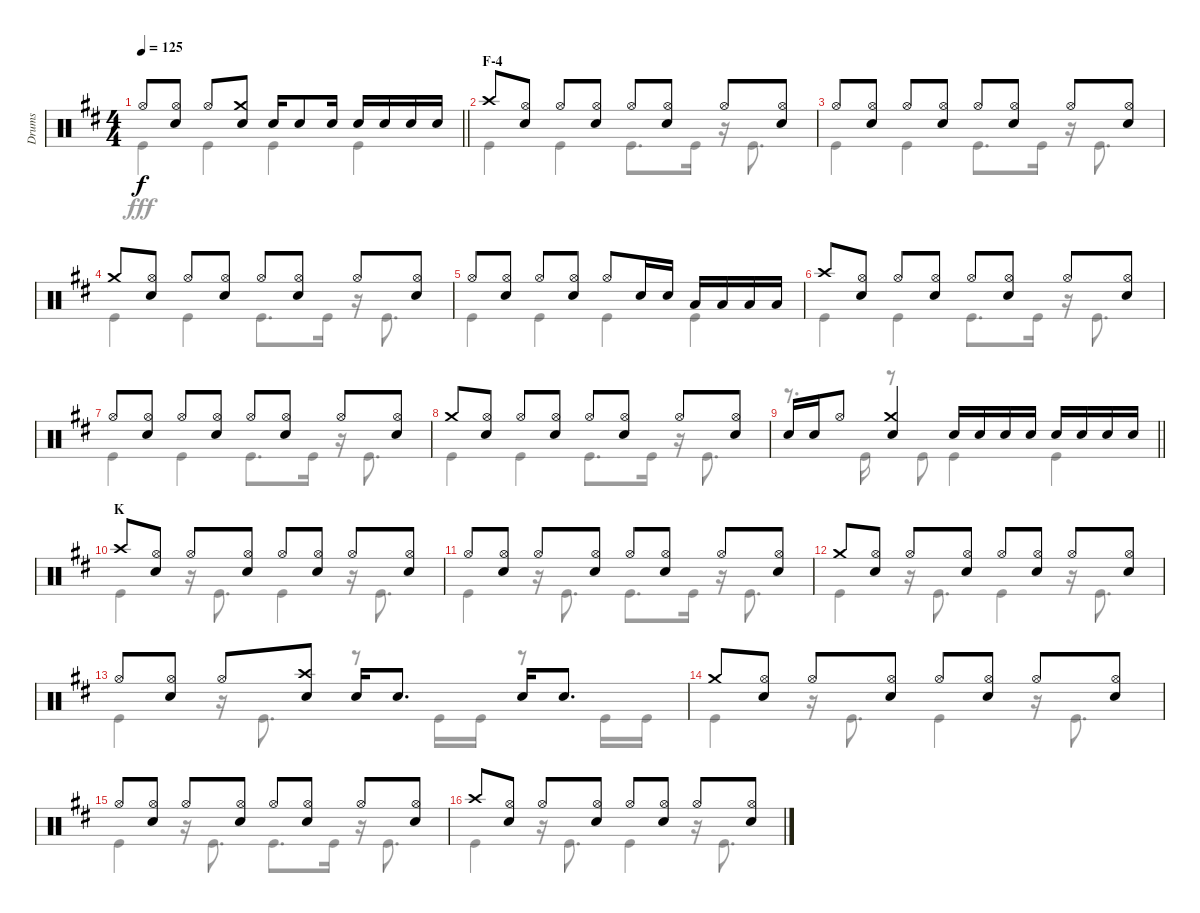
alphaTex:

\track ("Drums" "Drums") {instrument percussion}
\staff {score}
\articulation defaults
\voice
\ts (4 4)
\tempo 125
\clef neutral
\barLineRight lightlight
\ks d "Hi-Hat (open)".8{dy f}
("Hi-Hat (open)" "Snare (hit) 2").8 "Hi-Hat (open)".8 ("Crash medium (hit)" "Snare (hit) 2").8 "Snare (hit) 2".16 "Snare (hit) 2".8 "Snare (hit) 2".16 "Snare (hit) 2".16 "Snare (hit) 2".16 "Snare (hit) 2".16 "Snare (hit) 2".16 |
\section ("" "F-4")
"Crash high (hit)".8 ("Hi-Hat (open)" "Snare (hit) 2").8 "Hi-Hat (open)".8 ("Hi-Hat (open)" "Snare (hit) 2").8 "Hi-Hat (open)".8 ("Hi-Hat (open)" "Snare (hit) 2").8 "Hi-Hat (open)".8 ("Hi-Hat (open)" "Snare (hit) 2").8 |
"Hi-Hat (open)".8 ("Hi-Hat (open)" "Snare (hit) 2").8 "Hi-Hat (open)".8 ("Hi-Hat (open)" "Snare (hit) 2").8 "Hi-Hat (open)".8 ("Hi-Hat (open)" "Snare (hit) 2").8 "Hi-Hat (open)".8 ("Hi-Hat (open)" "Snare (hit) 2").8 |
"Crash medium (hit)".8 ("Hi-Hat (open)" "Snare (hit) 2").8 "Hi-Hat (open)".8 ("Hi-Hat (open)" "Snare (hit) 2").8 "Hi-Hat (open)".8 ("Hi-Hat (open)" "Snare (hit) 2").8 "Hi-Hat (open)".8 ("Hi-Hat (open)" "Snare (hit) 2").8 |
"Hi-Hat (open)".8 ("Hi-Hat (open)" "Snare (hit) 2").8 "Hi-Hat (open)".8 ("Hi-Hat (open)" "Snare (hit) 2").8 "Hi-Hat (open)".8 "Snare (hit) 2".16 "Snare (hit) 2".16 "Low Tom (hit)".16 "Low Tom (hit)".16 "Low Tom (hit)".16 "Low Tom (hit)".16 |
"Crash high (hit)".8 ("Hi-Hat (open)" "Snare (hit) 2").8 "Hi-Hat (open)".8 ("Hi-Hat (open)" "Snare (hit) 2").8 "Hi-Hat (open)".8 ("Hi-Hat (open)" "Snare (hit) 2").8 "Hi-Hat (open)".8 ("Hi-Hat (open)" "Snare (hit) 2").8 |
"Hi-Hat (open)".8 ("Hi-Hat (open)" "Snare (hit) 2").8 "Hi-Hat (open)".8 ("Hi-Hat (open)" "Snare (hit) 2").8 "Hi-Hat (open)".8 ("Hi-Hat (open)" "Snare (hit) 2").8 "Hi-Hat (open)".8 ("Hi-Hat (open)" "Snare (hit) 2").8 |
"Crash medium (hit)".8 ("Hi-Hat (open)" "Snare (hit) 2").8 "Hi-Hat (open)".8 ("Hi-Hat (open)" "Snare (hit) 2").8 "Hi-Hat (open)".8 ("Hi-Hat (open)" "Snare (hit) 2").8 "Hi-Hat (open)".8 ("Hi-Hat (open)" "Snare (hit) 2").8 |
\barLineRight lightlight "Snare (hit) 2".16 "Snare (hit) 2".16 "Hi-Hat (open)".8
("Crash medium (hit)" "Snare (hit) 2").4 "Snare (hit) 2".16 "Snare (hit) 2".16 "Snare (hit) 2".16 "Snare (hit) 2".16 "Snare (hit) 2".16 "Snare (hit) 2".16 "Snare (hit) 2".16 "Snare (hit) 2".16 |
\section ("" "K")
"Crash high (hit)".8 ("Hi-Hat (open)" "Snare (hit) 2").8 "Hi-Hat (open)".8 ("Hi-Hat (open)" "Snare (hit) 2").8 "Hi-Hat (open)".8 ("Hi-Hat (open)" "Snare (hit) 2").8 "Hi-Hat (open)".8 ("Hi-Hat (open)" "Snare (hit) 2").8 |
"Hi-Hat (open)".8 ("Hi-Hat (open)" "Snare (hit) 2").8 "Hi-Hat (open)".8 ("Hi-Hat (open)" "Snare (hit) 2").8 "Hi-Hat (open)".8 ("Hi-Hat (open)" "Snare (hit) 2").8 "Hi-Hat (open)".8 ("Hi-Hat (open)" "Snare (hit) 2").8 |
"Crash medium (hit)".8 ("Hi-Hat (open)" "Snare (hit) 2").8 "Hi-Hat (open)".8 ("Hi-Hat (open)" "Snare (hit) 2").8 "Hi-Hat (open)".8 ("Hi-Hat (open)" "Snare (hit) 2").8 "Hi-Hat (open)".8 ("Hi-Hat (open)" "Snare (hit) 2").8 |
"Hi-Hat (open)".8 ("Hi-Hat (open)" "Snare (hit) 2").8 "Hi-Hat (open)".8 ("Crash high (hit)" "Snare (hit) 2").8 "Snare (hit) 2".16 "Snare (hit) 2".8{d} "Snare (hit) 2".16 "Snare (hit) 2".8{d} |
"Crash medium (hit)".8 ("Hi-Hat (open)" "Snare (hit) 2").8 "Hi-Hat (open)".8 ("Hi-Hat (open)" "Snare (hit) 2").8 "Hi-Hat (open)".8 ("Hi-Hat (open)" "Snare (hit) 2").8 "Hi-Hat (open)".8 ("Hi-Hat (open)" "Snare (hit) 2").8 |
"Hi-Hat (open)".8 ("Hi-Hat (open)" "Snare (hit) 2").8 "Hi-Hat (open)".8 ("Hi-Hat (open)" "Snare (hit) 2").8 "Hi-Hat (open)".8 ("Hi-Hat (open)" "Snare (hit) 2").8 "Hi-Hat (open)".8 ("Hi-Hat (open)" "Snare (hit) 2").8 |
"Crash high (hit)".8 ("Hi-Hat (open)" "Snare (hit) 2").8 "Hi-Hat (open)".8 ("Hi-Hat (open)" "Snare (hit) 2").8 "Hi-Hat (open)".8 ("Hi-Hat (open)" "Snare (hit) 2").8 "Hi-Hat (open)".8 ("Hi-Hat (open)" "Snare (hit) 2").8
\voice
\clef neutral
\ottava regular
\simile none
\barLineRight lightlight
\ks d "Kick (hit)".4{dy fff} "Kick (hit)".4 "Kick (hit)".4 "Kick (hit)".4
|
"Kick (hit)".4 "Kick (hit)".4 "Kick (hit)".8{d} "Kick (hit)".16 r.16 "Kick (hit)".8{d} |
"Kick (hit)".4 "Kick (hit)".4 "Kick (hit)".8{d} "Kick (hit)".16 r.16 "Kick (hit)".8{d} |
"Kick (hit)".4 "Kick (hit)".4 "Kick (hit)".8{d} "Kick (hit)".16 r.16 "Kick (hit)".8{d} |
"Kick (hit)".4 "Kick (hit)".4 "Kick (hit)".4 "Kick (hit)".4 |
"Kick (hit)".4 "Kick (hit)".4 "Kick (hit)".8{d} "Kick (hit)".16 r.16 "Kick (hit)".8{d} |
"Kick (hit)".4 "Kick (hit)".4 "Kick (hit)".8{d} "Kick (hit)".16 r.16 "Kick (hit)".8{d} |
"Kick (hit)".4 "Kick (hit)".4 "Kick (hit)".8{d} "Kick (hit)".16 r.16 "Kick (hit)".8{d} |
\barLineRight lightlight
r.8{d} "Kick (hit)".16 r.8 "Kick (hit)".8 "Kick (hit)".4 "Kick (hit)".4 |
"Kick (hit)".4 r.16 "Kick (hit)".8{d} "Kick (hit)".4 r.16 "Kick (hit)".8{d} |
"Kick (hit)".4 r.16 "Kick (hit)".8{d} "Kick (hit)".8{d} "Kick (hit)".16 r.16 "Kick (hit)".8{d} |
"Kick (hit)".4 r.16 "Kick (hit)".8{d} "Kick (hit)".4 r.16 "Kick (hit)".8{d} |
"Kick (hit)".4 r.16 "Kick (hit)".8{d} r.8 "Kick (hit)".16 "Kick (hit)".16 r.8 "Kick (hit)".16 "Kick (hit)".16 |
"Kick (hit)".4 r.16 "Kick (hit)".8{d} "Kick (hit)".4 r.16 "Kick (hit)".8{d} |
"Kick (hit)".4 r.16 "Kick (hit)".8{d} "Kick (hit)".8{d} "Kick (hit)".16 r.16 "Kick (hit)".8{d} |
"Kick (hit)".4 r.16 "Kick (hit)".8{d} "Kick (hit)".4 r.16 "Kick (hit)".8{d}
